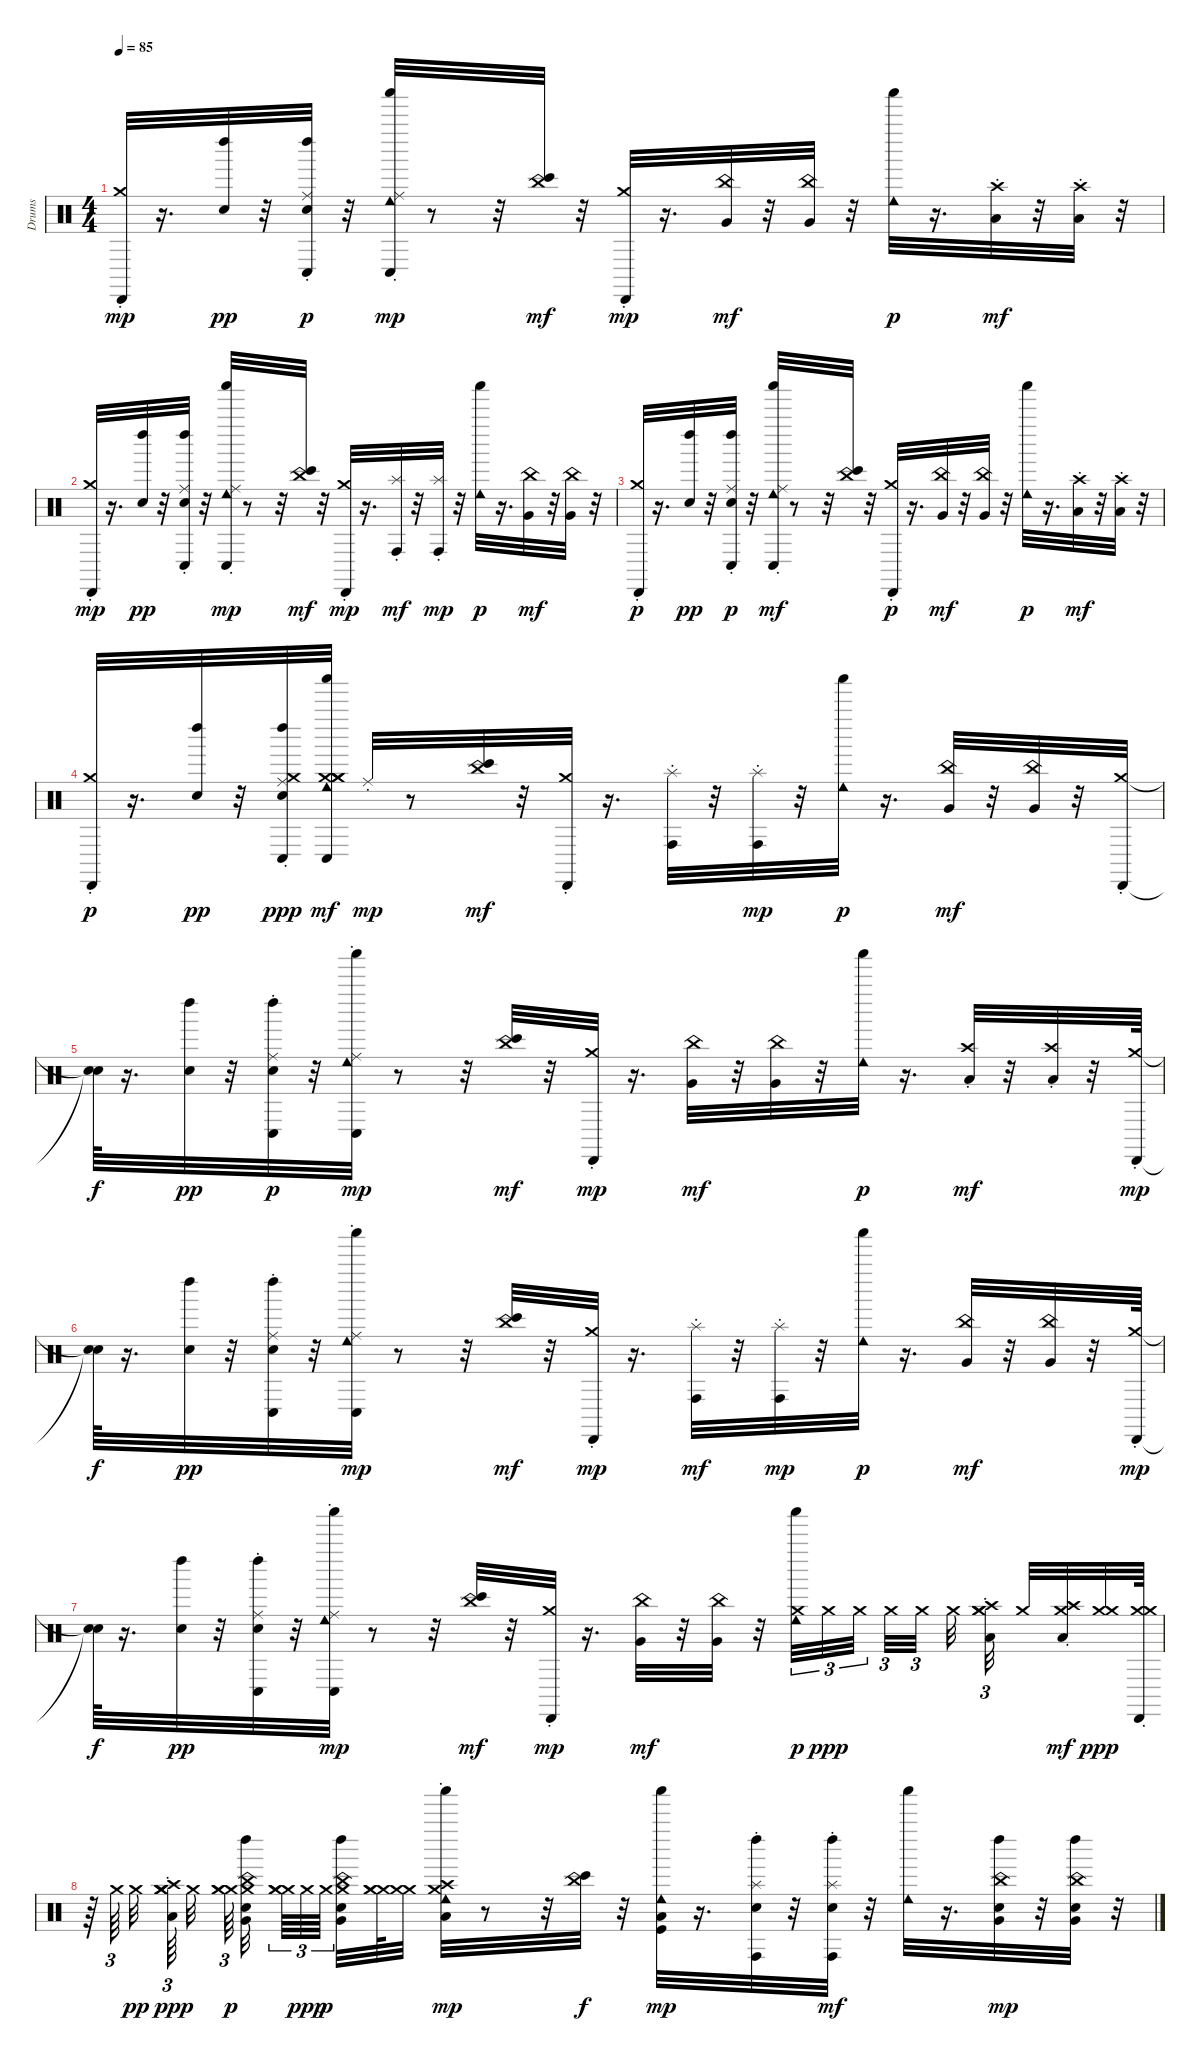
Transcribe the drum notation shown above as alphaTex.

\track ("Drums" "Drums") {instrument percussion}
\staff {score}
\articulation defaults
\ts (4 4)
\tempo 85
\clef neutral
\ks c
("Cabasa (hit)" "Crash medium (choke)").32{dy mp} r.16{d} ("Left Maraca (hit)" "Snare (hit)").32{dy pp} r.32 ("Conga low (hit)" "Ride (choke)" "Snare (hit)" "Left Maraca (hit)").32{dy p} r.32 ("Shaker (hit)" "Conga low (hit)" "Cowbell low (hit)" "Ride (choke)").32{dy mp} r.8 r.32 ("Bongo High (hit)" "China (choke)").32{dy mf} r.32 ("Cabasa (hit)" "Crash medium (choke)").32{dy mp} r.16{d} ("Very Low Tom (hit)" "China (choke)").32{dy mf} r.32 ("China (choke)" "Very Low Tom (hit)").32 r.32 ("Shaker (hit)" "Cowbell low (hit)").32{dy p} r.16{d} ("Crash high (choke)" "Low Floor Tom (hit)").32{dy mf} r.32 ("Low Floor Tom (hit)" "Crash high (choke)").32 r.32 |
("Crash medium (choke)" "Cabasa (hit)").32{dy mp} r.16{d} ("Left Maraca (hit)" "Snare (hit)").32{dy pp} r.32 ("Conga low (hit)" "Ride (choke)" "Left Maraca (hit)" "Snare (hit)").32 r.32 ("Shaker (hit)" "Cowbell low (hit)" "Conga low (hit)" "Ride (choke)").32{dy mp} r.8 r.32 ("Bongo High (hit)" "China (choke)").32{dy mf} r.32 ("Cabasa (hit)" "Crash medium (choke)").32{dy mp} r.16{d} ("Conga high (hit)" "Splash (choke)").32{dy mf} r.32 ("Conga high (hit)" "Splash (choke)").32{dy mp} r.32 ("Shaker (hit)" "Cowbell low (hit)").32{dy p} r.16{d} ("China (choke)" "Very Low Tom (hit)").32{dy mf} r.32 ("Very Low Tom (hit)" "China (choke)").32 r.32 |
("Cabasa (hit)" "Crash medium (choke)").32{dy p} r.16{d} ("Left Maraca (hit)" "Snare (hit)").32{dy pp} r.32 ("Ride (choke)" "Conga low (hit)" "Left Maraca (hit)" "Snare (hit)").32{dy p} r.32 ("Cowbell low (hit)" "Shaker (hit)" "Ride (choke)" "Conga low (hit)").32{dy mf} r.8 r.32 ("Bongo High (hit)" "China (choke)").32 r.32 ("Cabasa (hit)" "Crash medium (choke)").32{dy p} r.16{d} ("China (choke)" "Very Low Tom (hit)").32{dy mf} r.32 ("Very Low Tom (hit)" "China (choke)").32 r.32 ("Shaker (hit)" "Cowbell low (hit)").32{dy p} r.16{d} ("Low Floor Tom (hit)" "Crash high (choke)").32{dy mf} r.32 ("Low Floor Tom (hit)" "Crash high (choke)").32 r.32 |
("Cabasa (hit)" "Crash medium (choke)").32{dy p} r.16{d} ("Left Maraca (hit)" "Snare (hit)").32{dy pp} r.32 ("Ride (choke)" "Snare (hit)" "Conga low (hit)" "Left Maraca (hit)" "Crash medium (hit)").32{dy ppp} ("Crash medium (hit)" "Crash medium (hit)" "Crash medium (hit)" "Shaker (hit)" "Cowbell low (hit)" "Conga low (hit)").32{dy mf} "Ride (choke)".32{dy mp} r.8 ("China (choke)" "Bongo High (hit)").32{dy mf} r.32 ("Crash medium (choke)" "Cabasa (hit)").32 r.16{d} ("Conga high (hit)" "Splash (choke)").32 r.32 ("Conga high (hit)" "Splash (choke)").32{dy mp} r.32 ("Shaker (hit)" "Cowbell low (hit)").32{dy p} r.16{d} ("China (choke)" "Very Low Tom (hit)").32{dy mf} r.32 ("Very Low Tom (hit)" "China (choke)").32 r.32 ("Crash medium (choke)" "Cabasa (hit)").32 |
("Snare (hit)"{t} "Snare (hit)"{t}).64{dy f} r.16{d} ("Left Maraca (hit)" "Snare (hit)").32{dy pp} r.32 ("Ride (choke)" "Conga low (hit)" "Snare (hit)" "Left Maraca (hit)").32{dy p} r.32 ("Shaker (hit)" "Cowbell low (hit)" "Conga low (hit)" "Ride (choke)").32{dy mp} r.8 r.32 ("Bongo High (hit)" "China (choke)").32{dy mf} r.32 ("Cabasa (hit)" "Crash medium (choke)").32{dy mp} r.16{d} ("China (choke)" "Very Low Tom (hit)").32{dy mf} r.32 ("China (choke)" "Very Low Tom (hit)").32 r.32 ("Shaker (hit)" "Cowbell low (hit)").32{dy p} r.16{d} ("Crash high (choke)" "Low Floor Tom (hit)").32{dy mf} r.32 ("Crash high (choke)" "Low Floor Tom (hit)").32 r.32 ("Cabasa (hit)" "Crash medium (choke)").64{dy mp} |
("Snare (hit)"{t} "Snare (hit)"{t}).64{dy f} r.16{d} ("Left Maraca (hit)" "Snare (hit)").32{dy pp} r.32 ("Conga low (hit)" "Ride (choke)" "Left Maraca (hit)" "Snare (hit)").32 r.32 ("Shaker (hit)" "Conga low (hit)" "Cowbell low (hit)" "Ride (choke)").32{dy mp} r.8 r.32 ("Bongo High (hit)" "China (choke)").32{dy mf} r.32 ("Crash medium (choke)" "Cabasa (hit)").32{dy mp} r.16{d} ("Splash (choke)" "Conga high (hit)").32{dy mf} r.32 ("Conga high (hit)" "Splash (choke)").32{dy mp} r.32 ("Shaker (hit)" "Cowbell low (hit)").32{dy p} r.16{d} ("China (choke)" "Very Low Tom (hit)").32{dy mf} r.32 ("China (choke)" "Very Low Tom (hit)").32 r.32 ("Cabasa (hit)" "Crash medium (choke)").64{dy mp} |
("Snare (hit)"{t} "Snare (hit)"{t}).64{dy f} r.16{d} ("Left Maraca (hit)" "Snare (hit)").32{dy pp} r.32 ("Conga low (hit)" "Ride (choke)" "Left Maraca (hit)" "Snare (hit)").32 r.32 ("Cowbell low (hit)" "Shaker (hit)" "Conga low (hit)" "Ride (choke)").32{dy mp} r.8 r.32 ("Bongo High (hit)" "China (choke)").32{dy mf} r.32 ("Cabasa (hit)" "Crash medium (choke)").32{dy mp} r.16{d} ("China (choke)" "Very Low Tom (hit)").32{dy mf} r.32 ("China (choke)" "Very Low Tom (hit)").32 r.32 ("Crash medium (hit)" "Shaker (hit)" "Cowbell low (hit)").32{tu (3 2) dy p} "Crash medium (hit)".32{tu (3 2) dy ppp} "Crash medium (hit)".32{tu (3 2)} "Crash medium (hit)".32{tu (3 2)} "Crash medium (hit)".32{tu (3 2)} "Crash medium (hit)".32 ("Crash medium (hit)" "Crash high (choke)" "Low Floor Tom (hit)" "Crash medium (hit)").32{tu (3 2)} "Crash medium (hit)".32 ("Crash high (choke)" "Crash medium (hit)" "Low Floor Tom (hit)").32{dy mf} ("Crash medium (hit)" "Crash medium (hit)").32{dy ppp} ("Cabasa (hit)" "Crash medium (choke)" "Crash medium (hit)").64 |
r.64 "Crash medium (hit)".64{tu (3 2)} "Crash medium (hit)".32{dy pp} ("Crash medium (hit)" "Crash medium (hit)" "Crash high (choke)" "Low Floor Tom (hit)" "Crash medium (hit)").64{tu (3 2) dy ppp} "Crash medium (hit)".32 ("Crash medium (hit)" "Crash medium (hit)" "Crash medium (hit)").64{tu (3 2) dy p} ("Crash medium (hit)" "China (choke)" "Very Low Tom (hit)" "Left Maraca (hit)" "Snare (hit)").32 ("Crash medium (hit)" "Crash medium (hit)" "Crash medium (hit)").64{tu (3 2)} "Crash medium (hit)".64{tu (3 2) dy ppp} "Crash medium (hit)".64{tu (3 2) dy p} ("Crash medium (hit)" "Very Low Tom (hit)" "China (choke)" "Snare (hit)" "Left Maraca (hit)").32 ("Crash medium (hit)" "Crash medium (hit)" "Crash medium (hit)").64 ("Crash medium (hit)" "Crash medium (hit)").32 ("Crash medium (hit)" "Low Floor Tom (hit)" "Crash high (choke)" "Cowbell low (hit)" "Shaker (hit)").32{dy mp} r.8 r.32 ("Bongo High (hit)" "China (choke)").32{dy f} r.32 ("Low Floor Tom (hit)" "Kick (hit)" "Cowbell low (hit)" "Shaker (hit)").32{dy mp} r.16{d} ("Conga high (hit)" "Splash (choke)" "Left Maraca (hit)" "Snare (hit)").32 r.32 ("Left Maraca (hit)" "Snare (hit)" "Conga high (hit)" "Splash (choke)").32{dy mf} r.32 ("Shaker (hit)" "Cowbell low (hit)").32 r.16{d} ("China (choke)" "Very Low Tom (hit)" "Left Maraca (hit)" "Snare (hit)").32{dy mp} r.32 ("China (choke)" "Very Low Tom (hit)" "Left Maraca (hit)" "Snare (hit)").32 r.32
